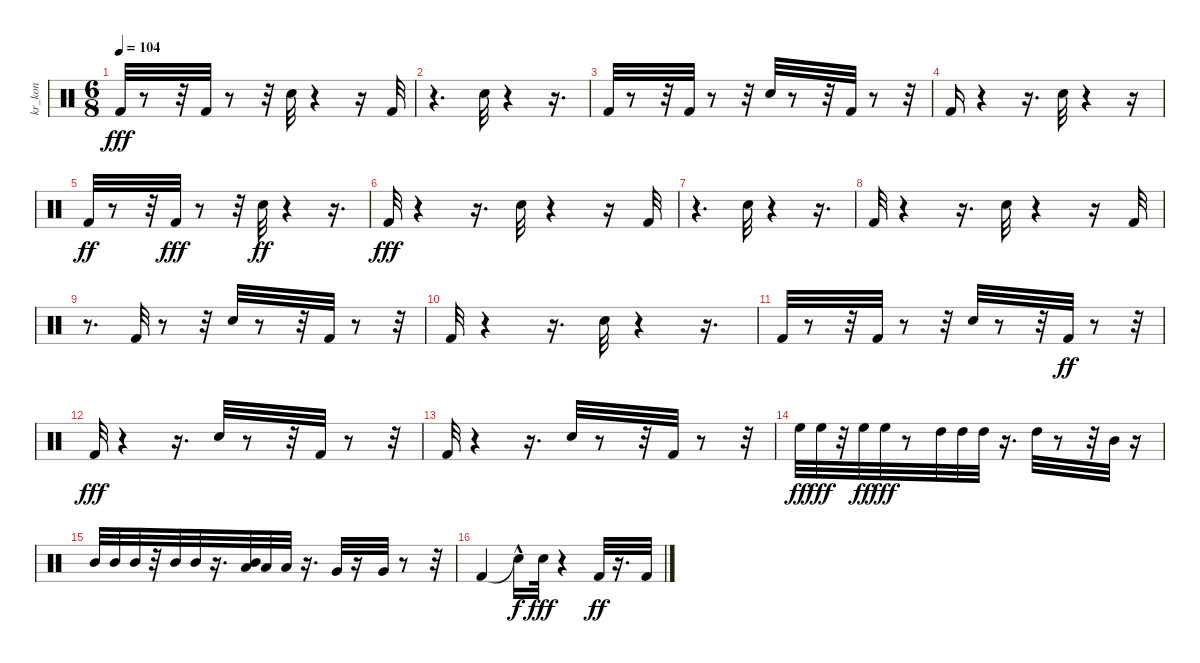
\track ("kr_kon" "kr_kon") {instrument percussion}
\staff {score}
\articulation defaults
\ts (6 8)
\tempo 104
\clef neutral
\ks c "Kick (hit) 2".32{dy fff}
r.8 r.32 "Kick (hit) 2".32 r.8 r.32 "Electric Snare (hit)".32 r.4 r.16 "Kick (hit) 2".32 |
r.4{d} "Electric Snare (hit)".32 r.4 r.16{d} |
"Kick (hit) 2".32 r.8 r.32 "Kick (hit) 2".32 r.8 r.32 "Electric Snare (hit)".32 r.8 r.32 "Kick (hit) 2".32 r.8 r.32 |
"Kick (hit) 2".16 r.4 r.16{d} "Electric Snare (hit)".32 r.4 r.16 |
"Kick (hit) 2".32{dy ff} r.8 r.32 "Kick (hit) 2".32{dy fff} r.8 r.32 "Electric Snare (hit)".32{dy ff} r.4 r.16{d} |
"Kick (hit) 2".32{dy fff} r.4 r.16{d} "Electric Snare (hit)".32 r.4 r.16 "Kick (hit) 2".32 |
r.4{d} "Electric Snare (hit)".32 r.4 r.16{d} |
"Kick (hit) 2".32 r.4 r.16{d} "Electric Snare (hit)".32 r.4 r.16 "Kick (hit) 2".32 |
r.8{d} "Kick (hit) 2".32 r.8 r.32 "Electric Snare (hit)".32 r.8 r.32 "Kick (hit) 2".32 r.8 r.32 |
"Kick (hit) 2".32 r.4 r.16{d} "Electric Snare (hit)".32 r.4 r.16{d} |
"Kick (hit) 2".32 r.8 r.32 "Kick (hit) 2".32 r.8 r.32 "Electric Snare (hit)".32 r.8 r.32 "Kick (hit) 2".32{dy ff} r.8 r.32 |
"Kick (hit) 2".32{dy fff} r.4 r.16{d} "Electric Snare (hit)".32 r.8 r.32 "Kick (hit) 2".32 r.8 r.32 |
"Kick (hit) 2".32 r.4 r.16{d} "Electric Snare (hit)".32 r.8 r.32 "Kick (hit) 2".32 r.8 r.32 |
"High Floor Tom (hit)".32{dy ff} "High Floor Tom (hit)".32{dy fff} r.32 "High Floor Tom (hit)".32{dy ff} "High Floor Tom (hit)".32{dy fff} r.8 "High Tom (hit)".32 "High Tom (hit)".32 "High Tom (hit)".32 r.16{d} "High Tom (hit)".32 r.8 r.32 "Mid Tom (hit)".32 r.16 |
"Mid Tom (hit)".32 "Mid Tom (hit)".32 "Mid Tom (hit)".32 r.32 "Mid Tom (hit)".32 "Mid Tom (hit)".32 r.16{d} ("Low Tom (hit)" "Mid Tom (hit)").32 "Low Tom (hit)".32 "Low Tom (hit)".32 r.16{d} "Very Low Tom (hit)".32 r.16 "Very Low Tom (hit)".32 r.8 r.32 |
"Kick (hit) 2".4 "Snare (hit)"{hac t}.16{dy f} "Electric Snare (hit)".32{dy fff} r.4 "Kick (hit) 2".32{dy ff} r.16{d} "Kick (hit) 2".32
